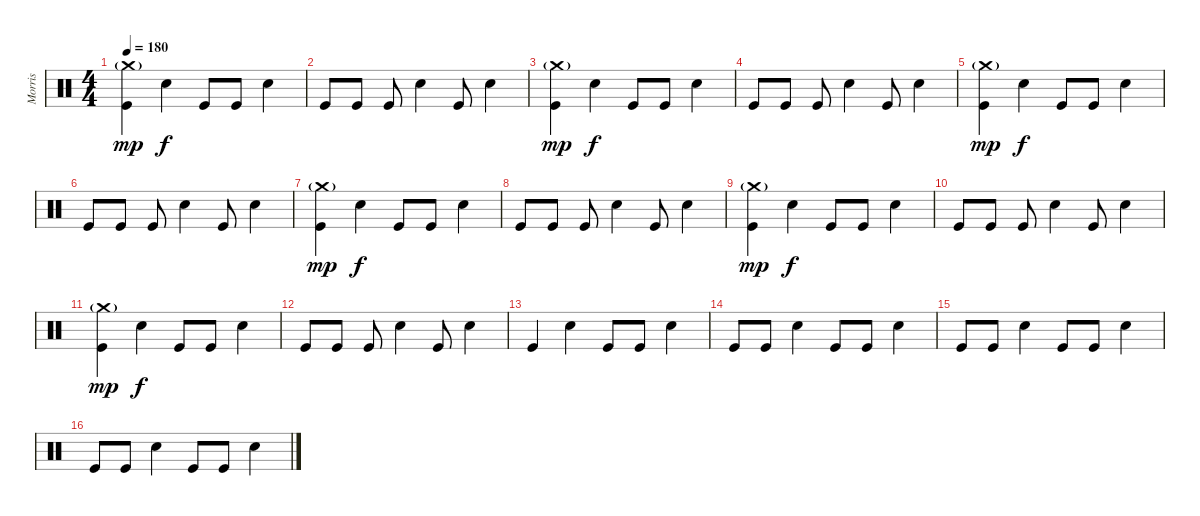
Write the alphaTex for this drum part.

\track ("Morris" "Morris") {instrument percussion}
\staff {score}
\articulation defaults
\ts (4 4)
\tempo 180
\clef neutral
\ks c
("Crash medium (hit)"{g} "Kick (hit)").4{dy mp} "Electric Snare (hit)".4{dy f} "Kick (hit)".8 "Kick (hit)".8 "Electric Snare (hit)".4 |
"Kick (hit)".8 "Kick (hit)".8 "Kick (hit)".8 "Electric Snare (hit)".4 "Kick (hit)".8 "Electric Snare (hit)".4 |
("Crash medium (hit)"{g} "Kick (hit)").4{dy mp} "Electric Snare (hit)".4{dy f} "Kick (hit)".8 "Kick (hit)".8 "Electric Snare (hit)".4 |
"Kick (hit)".8 "Kick (hit)".8 "Kick (hit)".8 "Electric Snare (hit)".4 "Kick (hit)".8 "Electric Snare (hit)".4 |
("Crash medium (hit)"{g} "Kick (hit)").4{dy mp} "Electric Snare (hit)".4{dy f} "Kick (hit)".8 "Kick (hit)".8 "Electric Snare (hit)".4 |
"Kick (hit)".8 "Kick (hit)".8 "Kick (hit)".8 "Electric Snare (hit)".4 "Kick (hit)".8 "Electric Snare (hit)".4 |
("Crash medium (hit)"{g} "Kick (hit)").4{dy mp} "Electric Snare (hit)".4{dy f} "Kick (hit)".8 "Kick (hit)".8 "Electric Snare (hit)".4 |
"Kick (hit)".8 "Kick (hit)".8 "Kick (hit)".8 "Electric Snare (hit)".4 "Kick (hit)".8 "Electric Snare (hit)".4 |
("Crash medium (hit)"{g} "Kick (hit)").4{dy mp} "Electric Snare (hit)".4{dy f} "Kick (hit)".8 "Kick (hit)".8 "Electric Snare (hit)".4 |
"Kick (hit)".8 "Kick (hit)".8 "Kick (hit)".8 "Electric Snare (hit)".4 "Kick (hit)".8 "Electric Snare (hit)".4 |
("Crash medium (hit)"{g} "Kick (hit)").4{dy mp} "Electric Snare (hit)".4{dy f} "Kick (hit)".8 "Kick (hit)".8 "Electric Snare (hit)".4 |
"Kick (hit)".8 "Kick (hit)".8 "Kick (hit)".8 "Electric Snare (hit)".4 "Kick (hit)".8 "Electric Snare (hit)".4 |
"Kick (hit)".4 "Electric Snare (hit)".4 "Kick (hit)".8 "Kick (hit)".8 "Electric Snare (hit)".4 |
"Kick (hit)".8 "Kick (hit)".8 "Electric Snare (hit)".4 "Kick (hit)".8 "Kick (hit)".8 "Electric Snare (hit)".4 |
"Kick (hit)".8 "Kick (hit)".8 "Electric Snare (hit)".4 "Kick (hit)".8 "Kick (hit)".8 "Electric Snare (hit)".4 |
"Kick (hit)".8 "Kick (hit)".8 "Electric Snare (hit)".4 "Kick (hit)".8 "Kick (hit)".8 "Electric Snare (hit)".4
